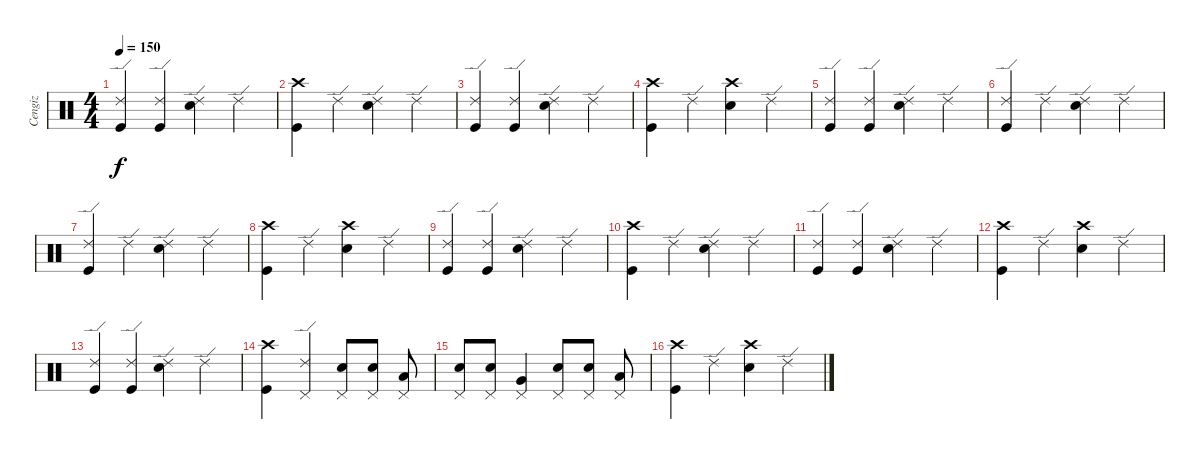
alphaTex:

\track ("Cengiz" "Cengiz") {instrument percussion}
\staff {score}
\articulation defaults
\ts (4 4)
\tempo 150
\clef neutral
\ks c
("Ride (edge) 2" "Kick (hit)").4{dy f} ("Ride (edge) 2" "Kick (hit)").4 ("Ride (edge) 2" "Snare (hit) 2").4 "Ride (edge) 2".4 |
("Crash high (hit)" "Kick (hit)").4 "Ride (edge) 2".4 ("Ride (edge) 2" "Snare (hit) 2").4 "Ride (edge) 2".4 |
("Ride (edge) 2" "Kick (hit)").4 ("Ride (edge) 2" "Kick (hit)").4 ("Ride (edge) 2" "Snare (hit) 2").4 "Ride (edge) 2".4 |
("Crash high (hit)" "Kick (hit)").4 "Ride (edge) 2".4 ("Crash high (hit)" "Snare (hit) 2").4 "Ride (edge) 2".4 |
("Ride (edge) 2" "Kick (hit)").4 ("Ride (edge) 2" "Kick (hit)").4 ("Ride (edge) 2" "Snare (hit) 2").4 "Ride (edge) 2".4 |
("Ride (edge) 2" "Kick (hit)").4 "Ride (edge) 2".4 ("Ride (edge) 2" "Snare (hit) 2").4 "Ride (edge) 2".4 |
("Ride (edge) 2" "Kick (hit)").4 "Ride (edge) 2".4 ("Ride (edge) 2" "Snare (hit) 2").4 "Ride (edge) 2".4 |
("Crash high (hit)" "Kick (hit)").4 "Ride (edge) 2".4 ("Crash high (hit)" "Snare (hit) 2").4 "Ride (edge) 2".4 |
("Ride (edge) 2" "Kick (hit)").4 ("Ride (edge) 2" "Kick (hit)").4 ("Ride (edge) 2" "Snare (hit) 2").4 "Ride (edge) 2".4 |
("Crash high (hit)" "Kick (hit)").4 "Ride (edge) 2".4 ("Ride (edge) 2" "Snare (hit) 2").4 "Ride (edge) 2".4 |
("Ride (edge) 2" "Kick (hit)").4 ("Ride (edge) 2" "Kick (hit)").4 ("Ride (edge) 2" "Snare (hit) 2").4 "Ride (edge) 2".4 |
("Crash high (hit)" "Kick (hit)").4 "Ride (edge) 2".4 ("Crash high (hit)" "Snare (hit) 2").4 "Ride (edge) 2".4 |
("Ride (edge) 2" "Kick (hit)").4 ("Ride (edge) 2" "Kick (hit)").4 ("Ride (edge) 2" "Snare (hit) 2").4 "Ride (edge) 2".4 |
("Crash high (hit)" "Kick (hit)").4 ("Ride (edge) 2" "Pedal Hi-Hat (hit)").4 ("Snare (hit) 2" "Pedal Hi-Hat (hit)").8 ("Snare (hit) 2" "Pedal Hi-Hat (hit)").8 ("Low Tom (hit)" "Pedal Hi-Hat (hit)").8 |
("Snare (hit) 2" "Pedal Hi-Hat (hit)").8 ("Snare (hit) 2" "Pedal Hi-Hat (hit)").8 ("Very Low Tom (hit)" "Pedal Hi-Hat (hit)").4 ("Snare (hit) 2" "Pedal Hi-Hat (hit)").8 ("Snare (hit) 2" "Pedal Hi-Hat (hit)").8 ("Low Floor Tom (hit)" "Pedal Hi-Hat (hit)").8 |
("Crash high (hit)" "Kick (hit)").4 "Ride (edge) 2".4 ("Crash high (hit)" "Snare (hit) 2").4 "Ride (edge) 2".4
